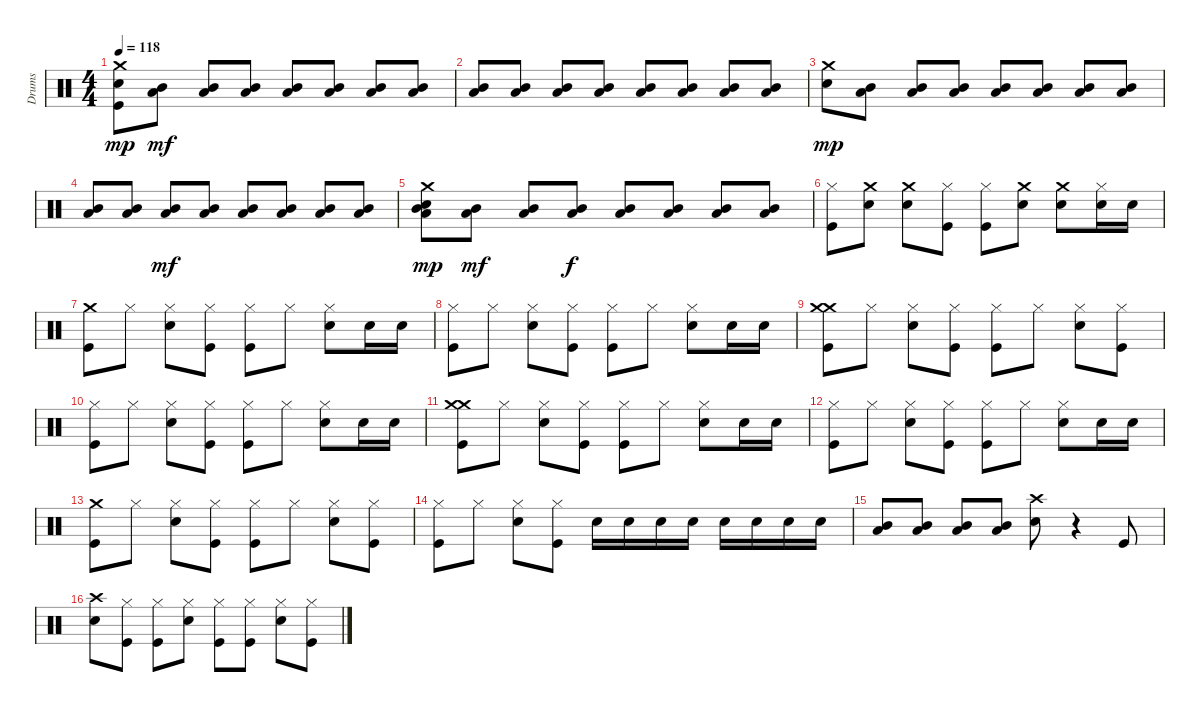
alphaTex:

\track ("Drums" "Drums") {instrument percussion}
\staff {score}
\articulation defaults
\ts (4 4)
\tempo 118
\clef neutral
\ks c
("Snare (hit) 2" "Kick (hit)" "Crash medium (hit)").8{dy mp} ("Mid Tom (hit)" "Low Tom (hit)").8{dy mf} ("Mid Tom (hit)" "Low Tom (hit)").8 ("Mid Tom (hit)" "Low Tom (hit)").8 ("Mid Tom (hit)" "Low Tom (hit)").8 ("Mid Tom (hit)" "Low Tom (hit)").8 ("Mid Tom (hit)" "Low Tom (hit)").8 ("Mid Tom (hit)" "Low Tom (hit)").8 |
("Mid Tom (hit)" "Low Tom (hit)").8 ("Mid Tom (hit)" "Low Tom (hit)").8 ("Mid Tom (hit)" "Low Tom (hit)").8 ("Mid Tom (hit)" "Low Tom (hit)").8 ("Mid Tom (hit)" "Low Tom (hit)").8 ("Mid Tom (hit)" "Low Tom (hit)").8 ("Mid Tom (hit)" "Low Tom (hit)").8 ("Mid Tom (hit)" "Low Tom (hit)").8 |
("Snare (hit) 2" "Crash medium (hit)").8{dy mp} ("Mid Tom (hit)" "Low Tom (hit)").8 ("Mid Tom (hit)" "Low Tom (hit)").8 ("Mid Tom (hit)" "Low Tom (hit)").8 ("Mid Tom (hit)" "Low Tom (hit)").8 ("Mid Tom (hit)" "Low Tom (hit)").8 ("Mid Tom (hit)" "Low Tom (hit)").8 ("Mid Tom (hit)" "Low Tom (hit)").8 |
("Mid Tom (hit)" "Low Tom (hit)").8 ("Mid Tom (hit)" "Low Tom (hit)").8 ("Mid Tom (hit)" "Low Tom (hit)").8{dy mf} ("Mid Tom (hit)" "Low Tom (hit)").8 ("Mid Tom (hit)" "Low Tom (hit)").8 ("Mid Tom (hit)" "Low Tom (hit)").8 ("Mid Tom (hit)" "Low Tom (hit)").8 ("Mid Tom (hit)" "Low Tom (hit)").8 |
("Snare (hit) 2" "Mid Tom (hit)" "Low Tom (hit)" "Crash medium (hit)").8{dy mp} ("Mid Tom (hit)" "Low Tom (hit)").8{dy mf} ("Mid Tom (hit)" "Low Tom (hit)").8 ("Mid Tom (hit)" "Low Tom (hit)").8{dy f} ("Mid Tom (hit)" "Low Tom (hit)").8 ("Mid Tom (hit)" "Low Tom (hit)").8 ("Mid Tom (hit)" "Low Tom (hit)").8 ("Mid Tom (hit)" "Low Tom (hit)").8 |
("Kick (hit)" "Hi-Hat (closed)").8 ("Snare (hit) 2" "Crash medium (hit)").8 ("Snare (hit) 2" "Crash medium (hit)").8 ("Kick (hit)" "Hi-Hat (closed)").8 ("Kick (hit)" "Hi-Hat (closed)").8 ("Snare (hit) 2" "Crash medium (hit)").8 ("Snare (hit) 2" "Crash medium (hit)").8 ("Snare (hit) 2" "Hi-Hat (closed)").16 "Snare (hit) 2".16 |
("Kick (hit)" "Crash medium (hit)").8 "Hi-Hat (closed)".8 ("Snare (hit) 2" "Hi-Hat (closed)").8 ("Kick (hit)" "Hi-Hat (closed)").8 ("Kick (hit)" "Hi-Hat (closed)").8 "Hi-Hat (closed)".8 ("Snare (hit) 2" "Hi-Hat (closed)").8 "Snare (hit) 2".16 "Snare (hit) 2".16 |
("Kick (hit)" "Hi-Hat (closed)").8 "Hi-Hat (closed)".8 ("Snare (hit) 2" "Hi-Hat (closed)").8 ("Kick (hit)" "Hi-Hat (closed)").8 ("Kick (hit)" "Hi-Hat (closed)").8 "Hi-Hat (closed)".8 ("Snare (hit) 2" "Hi-Hat (closed)").8 "Snare (hit) 2".16 "Snare (hit) 2".16 |
("Kick (hit)" "Crash medium (hit)" "Crash medium (hit)").8 "Hi-Hat (closed)".8 ("Snare (hit) 2" "Hi-Hat (closed)").8 ("Kick (hit)" "Hi-Hat (closed)").8 ("Kick (hit)" "Hi-Hat (closed)").8 "Hi-Hat (closed)".8 ("Snare (hit) 2" "Hi-Hat (closed)").8 ("Kick (hit)" "Hi-Hat (closed)").8 |
("Kick (hit)" "Hi-Hat (closed)").8 "Hi-Hat (closed)".8 ("Snare (hit) 2" "Hi-Hat (closed)").8 ("Kick (hit)" "Hi-Hat (closed)").8 ("Kick (hit)" "Hi-Hat (closed)").8 "Hi-Hat (closed)".8 ("Snare (hit) 2" "Hi-Hat (closed)").8 "Snare (hit) 2".16 "Snare (hit) 2".16 |
("Kick (hit)" "Crash medium (hit)" "Crash medium (hit)").8 "Hi-Hat (closed)".8 ("Snare (hit) 2" "Hi-Hat (closed)").8 ("Kick (hit)" "Hi-Hat (closed)").8 ("Kick (hit)" "Hi-Hat (closed)").8 "Hi-Hat (closed)".8 ("Snare (hit) 2" "Hi-Hat (closed)").8 "Snare (hit) 2".16 "Snare (hit) 2".16 |
("Kick (hit)" "Hi-Hat (closed)").8 "Hi-Hat (closed)".8 ("Snare (hit) 2" "Hi-Hat (closed)").8 ("Kick (hit)" "Hi-Hat (closed)").8 ("Kick (hit)" "Hi-Hat (closed)").8 "Hi-Hat (closed)".8 ("Snare (hit) 2" "Hi-Hat (closed)").8 "Snare (hit) 2".16 "Snare (hit) 2".16 |
("Kick (hit)" "Crash medium (hit)").8 "Hi-Hat (closed)".8 ("Snare (hit) 2" "Hi-Hat (closed)").8 ("Kick (hit)" "Hi-Hat (closed)").8 ("Kick (hit)" "Hi-Hat (closed)").8 "Hi-Hat (closed)".8 ("Snare (hit) 2" "Hi-Hat (closed)").8 ("Kick (hit)" "Hi-Hat (closed)").8 |
("Kick (hit)" "Hi-Hat (closed)").8 "Hi-Hat (closed)".8 ("Snare (hit) 2" "Hi-Hat (closed)").8 ("Kick (hit)" "Hi-Hat (closed)").8 "Snare (hit) 2".16 "Snare (hit) 2".16 "Snare (hit) 2".16 "Snare (hit) 2".16 "Snare (hit) 2".16 "Snare (hit) 2".16 "Snare (hit) 2".16 "Snare (hit) 2".16 |
("Low Tom (hit)" "Mid Tom (hit)").8 ("Low Tom (hit)" "Mid Tom (hit)").8 ("Low Tom (hit)" "Mid Tom (hit)").8 ("Low Tom (hit)" "Mid Tom (hit)").8 ("Snare (hit) 2" "Crash high (hit)").8 r.4 "Kick (hit)".8 |
("Snare (hit) 2" "Crash high (hit)").8 ("Kick (hit)" "Hi-Hat (closed)").8 ("Kick (hit)" "Hi-Hat (closed)").8 ("Snare (hit) 2" "Hi-Hat (closed)").8 ("Kick (hit)" "Hi-Hat (closed)").8 ("Kick (hit)" "Hi-Hat (closed)").8 ("Snare (hit) 2" "Hi-Hat (closed)").8 ("Kick (hit)" "Hi-Hat (closed)").8
